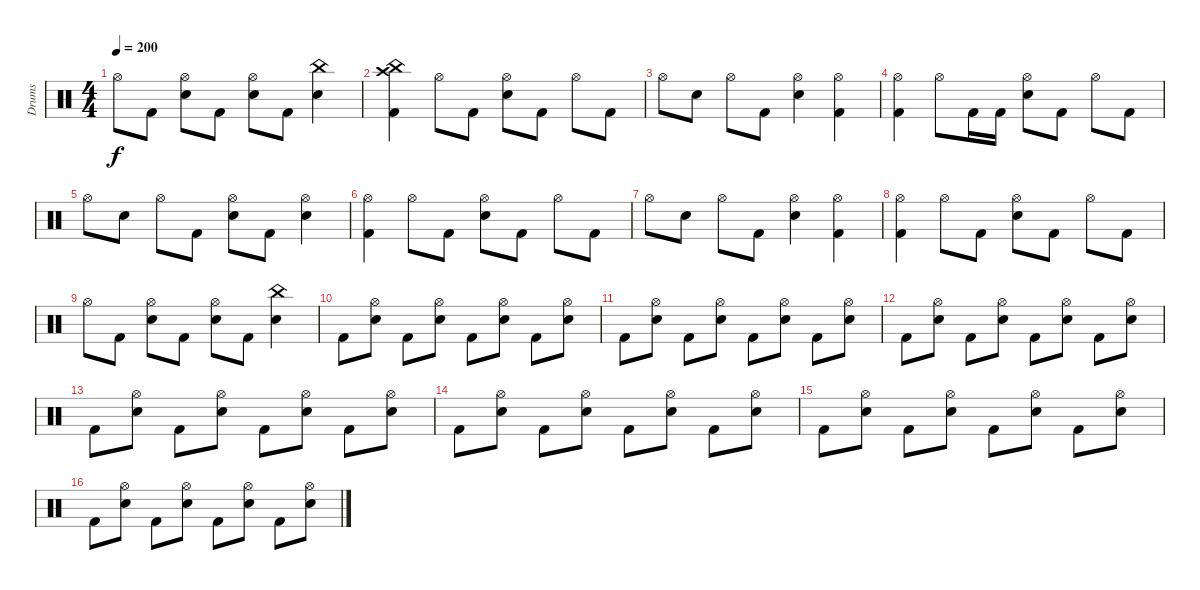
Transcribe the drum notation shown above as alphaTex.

\track ("Drums" "Drums") {instrument percussion}
\staff {score}
\articulation defaults
\ts (4 4)
\tempo 200
\clef neutral
\ks c "Hi-Hat (open)".8{dy f} "Kick (hit) 2".8
("Hi-Hat (open)" "Electric Snare (hit)").8 "Kick (hit) 2".8 ("Hi-Hat (open)" "Electric Snare (hit)").8 "Kick (hit) 2".8 ("China (hit)" "Electric Snare (hit)").4 |
("China (hit)" "Crash high (hit)" "Kick (hit) 2").4 "Hi-Hat (open)".8 "Kick (hit) 2".8 ("Hi-Hat (open)" "Electric Snare (hit)").8 "Kick (hit) 2".8 "Hi-Hat (open)".8 "Kick (hit) 2".8 |
"Hi-Hat (open)".8 "Electric Snare (hit)".8 "Hi-Hat (open)".8 "Kick (hit) 2".8 ("Hi-Hat (open)" "Electric Snare (hit)").4 ("Hi-Hat (open)" "Kick (hit) 2").4 |
("Hi-Hat (open)" "Kick (hit) 2").4 "Hi-Hat (open)".8 "Kick (hit) 2".16 "Kick (hit) 2".16 ("Hi-Hat (open)" "Electric Snare (hit)").8 "Kick (hit) 2".8 "Hi-Hat (open)".8 "Kick (hit) 2".8 |
"Hi-Hat (open)".8 "Electric Snare (hit)".8 "Hi-Hat (open)".8 "Kick (hit) 2".8 ("Hi-Hat (open)" "Electric Snare (hit)").8 "Kick (hit) 2".8 ("Hi-Hat (open)" "Electric Snare (hit)").4 |
("Hi-Hat (open)" "Kick (hit) 2").4 "Hi-Hat (open)".8 "Kick (hit) 2".8 ("Hi-Hat (open)" "Electric Snare (hit)").8 "Kick (hit) 2".8 "Hi-Hat (open)".8 "Kick (hit) 2".8 |
"Hi-Hat (open)".8 "Electric Snare (hit)".8 "Hi-Hat (open)".8 "Kick (hit) 2".8 ("Hi-Hat (open)" "Electric Snare (hit)").4 ("Hi-Hat (open)" "Kick (hit) 2").4 |
("Hi-Hat (open)" "Kick (hit) 2").4 "Hi-Hat (open)".8 "Kick (hit) 2".8 ("Hi-Hat (open)" "Electric Snare (hit)").8 "Kick (hit) 2".8 "Hi-Hat (open)".8 "Kick (hit) 2".8 |
"Hi-Hat (open)".8 "Kick (hit) 2".8 ("Hi-Hat (open)" "Electric Snare (hit)").8 "Kick (hit) 2".8 ("Hi-Hat (open)" "Electric Snare (hit)").8 "Kick (hit) 2".8 ("China (hit)" "Electric Snare (hit)").4 |
"Kick (hit) 2".8 ("Hi-Hat (open)" "Electric Snare (hit)").8 "Kick (hit) 2".8 ("Hi-Hat (open)" "Electric Snare (hit)").8 "Kick (hit) 2".8 ("Hi-Hat (open)" "Electric Snare (hit)").8 "Kick (hit) 2".8 ("Hi-Hat (open)" "Electric Snare (hit)").8 |
"Kick (hit) 2".8 ("Hi-Hat (open)" "Electric Snare (hit)").8 "Kick (hit) 2".8 ("Hi-Hat (open)" "Electric Snare (hit)").8 "Kick (hit) 2".8 ("Hi-Hat (open)" "Electric Snare (hit)").8 "Kick (hit) 2".8 ("Hi-Hat (open)" "Electric Snare (hit)").8 |
"Kick (hit) 2".8 ("Hi-Hat (open)" "Electric Snare (hit)").8 "Kick (hit) 2".8 ("Hi-Hat (open)" "Electric Snare (hit)").8 "Kick (hit) 2".8 ("Hi-Hat (open)" "Electric Snare (hit)").8 "Kick (hit) 2".8 ("Hi-Hat (open)" "Electric Snare (hit)").8 |
"Kick (hit) 2".8 ("Hi-Hat (open)" "Electric Snare (hit)").8 "Kick (hit) 2".8 ("Hi-Hat (open)" "Electric Snare (hit)").8 "Kick (hit) 2".8 ("Hi-Hat (open)" "Electric Snare (hit)").8 "Kick (hit) 2".8 ("Hi-Hat (open)" "Electric Snare (hit)").8 |
"Kick (hit) 2".8 ("Hi-Hat (open)" "Electric Snare (hit)").8 "Kick (hit) 2".8 ("Hi-Hat (open)" "Electric Snare (hit)").8 "Kick (hit) 2".8 ("Hi-Hat (open)" "Electric Snare (hit)").8 "Kick (hit) 2".8 ("Hi-Hat (open)" "Electric Snare (hit)").8 |
"Kick (hit) 2".8 ("Hi-Hat (open)" "Electric Snare (hit)").8 "Kick (hit) 2".8 ("Hi-Hat (open)" "Electric Snare (hit)").8 "Kick (hit) 2".8 ("Hi-Hat (open)" "Electric Snare (hit)").8 "Kick (hit) 2".8 ("Hi-Hat (open)" "Electric Snare (hit)").8 |
"Kick (hit) 2".8 ("Hi-Hat (open)" "Electric Snare (hit)").8 "Kick (hit) 2".8 ("Hi-Hat (open)" "Electric Snare (hit)").8 "Kick (hit) 2".8 ("Hi-Hat (open)" "Electric Snare (hit)").8 "Kick (hit) 2".8 ("Hi-Hat (open)" "Electric Snare (hit)").8
